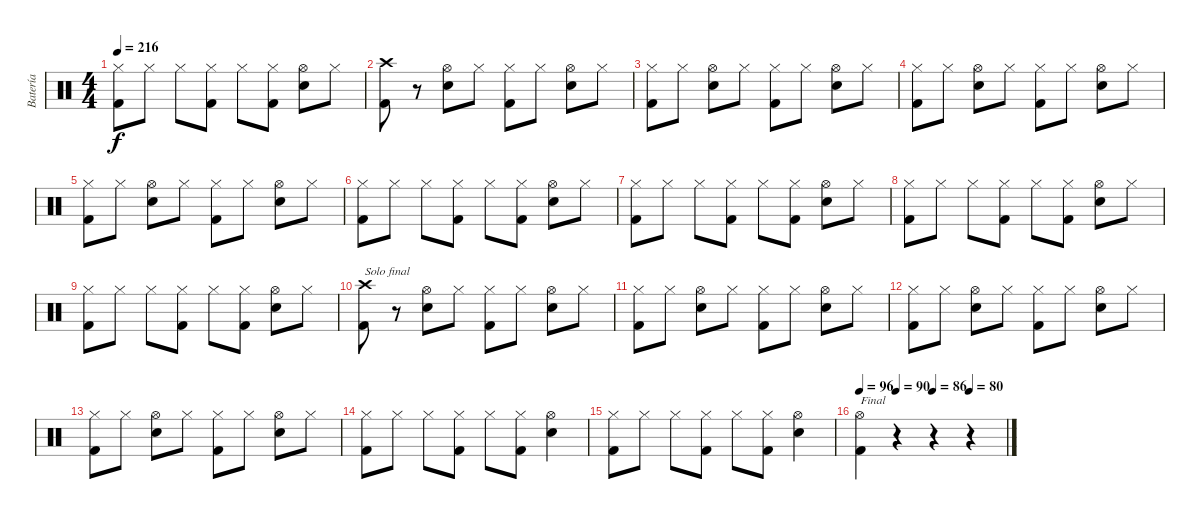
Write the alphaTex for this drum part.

\track ("Batería" "Batería") {instrument percussion}
\staff {score}
\articulation defaults
\ts (4 4)
\tempo 216
\clef neutral
\ks c
("Kick (hit) 2" "Hi-Hat (closed)").8{dy f} "Hi-Hat (closed)".8 "Hi-Hat (closed)".8 ("Kick (hit) 2" "Hi-Hat (closed)").8 "Hi-Hat (closed)".8 ("Kick (hit) 2" "Hi-Hat (closed)").8 ("Electric Snare (hit)" "Hi-Hat (open)").8 "Hi-Hat (closed)".8 |
("Kick (hit) 2" "Crash high (hit)").8 r.8 ("Electric Snare (hit)" "Hi-Hat (open)").8 "Hi-Hat (closed)".8 ("Kick (hit) 2" "Hi-Hat (closed)").8 "Hi-Hat (closed)".8 ("Electric Snare (hit)" "Hi-Hat (open)").8 "Hi-Hat (closed)".8 |
("Kick (hit) 2" "Hi-Hat (closed)").8 "Hi-Hat (closed)".8 ("Electric Snare (hit)" "Hi-Hat (open)").8 "Hi-Hat (closed)".8 ("Kick (hit) 2" "Hi-Hat (closed)").8 "Hi-Hat (closed)".8 ("Electric Snare (hit)" "Hi-Hat (open)").8 "Hi-Hat (closed)".8 |
("Kick (hit) 2" "Hi-Hat (closed)").8 "Hi-Hat (closed)".8 ("Electric Snare (hit)" "Hi-Hat (open)").8 "Hi-Hat (closed)".8 ("Kick (hit) 2" "Hi-Hat (closed)").8 "Hi-Hat (closed)".8 ("Electric Snare (hit)" "Hi-Hat (open)").8 "Hi-Hat (closed)".8 |
("Kick (hit) 2" "Hi-Hat (closed)").8 "Hi-Hat (closed)".8 ("Electric Snare (hit)" "Hi-Hat (open)").8 "Hi-Hat (closed)".8 ("Kick (hit) 2" "Hi-Hat (closed)").8 "Hi-Hat (closed)".8 ("Electric Snare (hit)" "Hi-Hat (open)").8 "Hi-Hat (closed)".8 |
("Kick (hit) 2" "Hi-Hat (closed)").8 "Hi-Hat (closed)".8 "Hi-Hat (closed)".8 ("Kick (hit) 2" "Hi-Hat (closed)").8 "Hi-Hat (closed)".8 ("Kick (hit) 2" "Hi-Hat (closed)").8 ("Electric Snare (hit)" "Hi-Hat (open)").8 "Hi-Hat (closed)".8 |
("Kick (hit) 2" "Hi-Hat (closed)").8 "Hi-Hat (closed)".8 "Hi-Hat (closed)".8 ("Kick (hit) 2" "Hi-Hat (closed)").8 "Hi-Hat (closed)".8 ("Kick (hit) 2" "Hi-Hat (closed)").8 ("Electric Snare (hit)" "Hi-Hat (open)").8 "Hi-Hat (closed)".8 |
("Kick (hit) 2" "Hi-Hat (closed)").8 "Hi-Hat (closed)".8 "Hi-Hat (closed)".8 ("Kick (hit) 2" "Hi-Hat (closed)").8 "Hi-Hat (closed)".8 ("Kick (hit) 2" "Hi-Hat (closed)").8 ("Electric Snare (hit)" "Hi-Hat (open)").8 "Hi-Hat (closed)".8 |
("Kick (hit) 2" "Hi-Hat (closed)").8 "Hi-Hat (closed)".8 "Hi-Hat (closed)".8 ("Kick (hit) 2" "Hi-Hat (closed)").8 "Hi-Hat (closed)".8 ("Kick (hit) 2" "Hi-Hat (closed)").8 ("Electric Snare (hit)" "Hi-Hat (open)").8 "Hi-Hat (closed)".8 |
("Kick (hit) 2" "Crash high (hit)").8{txt "Solo final"} r.8 ("Electric Snare (hit)" "Hi-Hat (open)").8 "Hi-Hat (closed)".8 ("Kick (hit) 2" "Hi-Hat (closed)").8 "Hi-Hat (closed)".8 ("Electric Snare (hit)" "Hi-Hat (open)").8 "Hi-Hat (closed)".8 |
("Kick (hit) 2" "Hi-Hat (closed)").8 "Hi-Hat (closed)".8 ("Electric Snare (hit)" "Hi-Hat (open)").8 "Hi-Hat (closed)".8 ("Kick (hit) 2" "Hi-Hat (closed)").8 "Hi-Hat (closed)".8 ("Electric Snare (hit)" "Hi-Hat (open)").8 "Hi-Hat (closed)".8 |
("Kick (hit) 2" "Hi-Hat (closed)").8 "Hi-Hat (closed)".8 ("Electric Snare (hit)" "Hi-Hat (open)").8 "Hi-Hat (closed)".8 ("Kick (hit) 2" "Hi-Hat (closed)").8 "Hi-Hat (closed)".8 ("Electric Snare (hit)" "Hi-Hat (open)").8 "Hi-Hat (closed)".8 |
("Kick (hit) 2" "Hi-Hat (closed)").8 "Hi-Hat (closed)".8 ("Electric Snare (hit)" "Hi-Hat (open)").8 "Hi-Hat (closed)".8 ("Kick (hit) 2" "Hi-Hat (closed)").8 "Hi-Hat (closed)".8 ("Electric Snare (hit)" "Hi-Hat (open)").8 "Hi-Hat (closed)".8 |
("Kick (hit) 2" "Hi-Hat (closed)").8 "Hi-Hat (closed)".8 "Hi-Hat (closed)".8 ("Kick (hit) 2" "Hi-Hat (closed)").8 "Hi-Hat (closed)".8 ("Kick (hit) 2" "Hi-Hat (closed)").8 ("Electric Snare (hit)" "Hi-Hat (open)").4 |
("Kick (hit) 2" "Hi-Hat (closed)").8 "Hi-Hat (closed)".8 "Hi-Hat (closed)".8 ("Kick (hit) 2" "Hi-Hat (closed)").8 "Hi-Hat (closed)".8 ("Kick (hit) 2" "Hi-Hat (closed)").8 ("Electric Snare (hit)" "Hi-Hat (open)").4 |
\tempo 96
\tempo (90 0.25)
\tempo (86 0.5)
\tempo (80 0.75)
("Kick (hit) 2" "Hi-Hat (open)").4{txt "Final"} r.4 r.4 r.4
